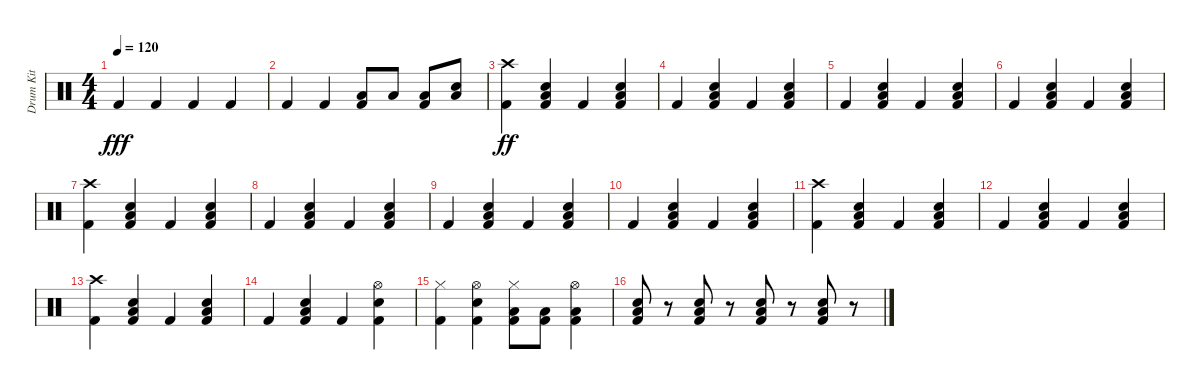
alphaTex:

\track ("Drum Kit" "Drum Kit") {instrument percussion}
\staff {score}
\articulation defaults
\ts (4 4)
\tempo 120
\clef neutral
\ks c "Kick (hit) 2".4{dy fff} "Kick (hit) 2".4 "Kick (hit) 2".4 "Kick (hit) 2".4
|
"Kick (hit) 2".4 "Kick (hit) 2".4 ("Low Floor Tom (hit)" "Kick (hit) 2").8 "Low Floor Tom (hit)".8 ("Low Floor Tom (hit)" "Kick (hit) 2").8 ("Snare (hit) 2" "Low Floor Tom (hit)").8 |
("Crash high (hit)" "Kick (hit) 2").4{dy ff} ("Low Floor Tom (hit)" "Snare (hit) 2" "Kick (hit) 2").4 "Kick (hit) 2".4 ("Low Floor Tom (hit)" "Snare (hit) 2" "Kick (hit) 2").4 |
"Kick (hit) 2".4 ("Low Floor Tom (hit)" "Snare (hit) 2" "Kick (hit) 2").4 "Kick (hit) 2".4 ("Low Floor Tom (hit)" "Snare (hit) 2" "Kick (hit) 2").4 |
"Kick (hit) 2".4 ("Low Floor Tom (hit)" "Snare (hit) 2" "Kick (hit) 2").4 "Kick (hit) 2".4 ("Low Floor Tom (hit)" "Snare (hit) 2" "Kick (hit) 2").4 |
"Kick (hit) 2".4 ("Low Floor Tom (hit)" "Snare (hit) 2" "Kick (hit) 2").4 "Kick (hit) 2".4 ("Low Floor Tom (hit)" "Snare (hit) 2" "Kick (hit) 2").4 |
("Crash high (hit)" "Kick (hit) 2").4 ("Low Floor Tom (hit)" "Snare (hit) 2" "Kick (hit) 2").4 "Kick (hit) 2".4 ("Low Floor Tom (hit)" "Snare (hit) 2" "Kick (hit) 2").4 |
"Kick (hit) 2".4 ("Low Floor Tom (hit)" "Snare (hit) 2" "Kick (hit) 2").4 "Kick (hit) 2".4 ("Low Floor Tom (hit)" "Snare (hit) 2" "Kick (hit) 2").4 |
"Kick (hit) 2".4 ("Low Floor Tom (hit)" "Snare (hit) 2" "Kick (hit) 2").4 "Kick (hit) 2".4 ("Low Floor Tom (hit)" "Snare (hit) 2" "Kick (hit) 2").4 |
"Kick (hit) 2".4 ("Low Floor Tom (hit)" "Snare (hit) 2" "Kick (hit) 2").4 "Kick (hit) 2".4 ("Low Floor Tom (hit)" "Snare (hit) 2" "Kick (hit) 2").4 |
("Crash high (hit)" "Kick (hit) 2").4 ("Low Floor Tom (hit)" "Snare (hit) 2" "Kick (hit) 2").4 "Kick (hit) 2".4 ("Low Floor Tom (hit)" "Snare (hit) 2" "Kick (hit) 2").4 |
"Kick (hit) 2".4 ("Low Floor Tom (hit)" "Snare (hit) 2" "Kick (hit) 2").4 "Kick (hit) 2".4 ("Low Floor Tom (hit)" "Snare (hit) 2" "Kick (hit) 2").4 |
("Crash high (hit)" "Kick (hit) 2").4 ("Low Floor Tom (hit)" "Snare (hit) 2" "Kick (hit) 2").4 "Kick (hit) 2".4 ("Low Floor Tom (hit)" "Snare (hit) 2" "Kick (hit) 2").4 |
"Kick (hit) 2".4 ("Low Floor Tom (hit)" "Snare (hit) 2" "Kick (hit) 2").4 "Kick (hit) 2".4 ("Hi-Hat (open)" "Snare (hit) 2" "Kick (hit) 2").4 |
("Hi-Hat (closed)" "Kick (hit) 2").4 ("Hi-Hat (open)" "Snare (hit) 2" "Kick (hit) 2").4 ("Hi-Hat (closed)" "Low Floor Tom (hit)" "Kick (hit) 2").8 ("Low Floor Tom (hit)" "Kick (hit) 2").8 ("Hi-Hat (open)" "Low Floor Tom (hit)" "Kick (hit) 2").4 |
("Low Floor Tom (hit)" "Snare (hit) 2" "Kick (hit) 2").8 r.8 ("Low Floor Tom (hit)" "Snare (hit) 2" "Kick (hit) 2").8 r.8 ("Low Floor Tom (hit)" "Snare (hit) 2" "Kick (hit) 2").8 r.8 ("Low Floor Tom (hit)" "Snare (hit) 2" "Kick (hit) 2").8 r.8
